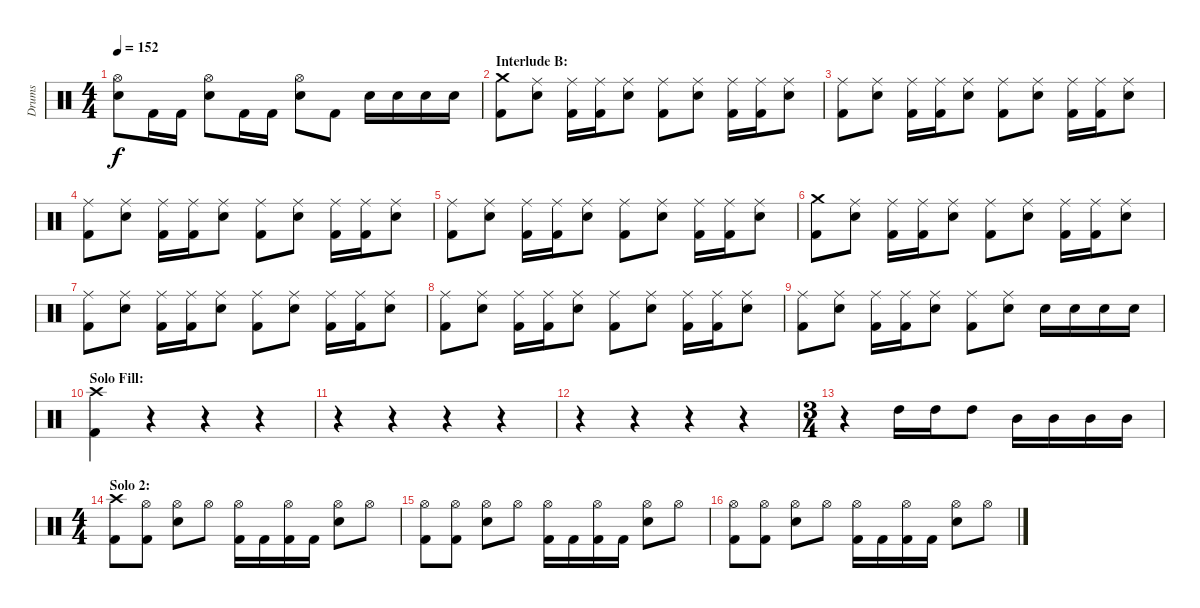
\track ("Drums" "Drums") {instrument percussion}
\staff {score}
\articulation defaults
\ts (4 4)
\tempo 152
\clef neutral
\ks c
("Hi-Hat (open)" "Electric Snare (hit)").8{dy f} "Kick (hit) 2".16 "Kick (hit) 2".16 ("Hi-Hat (open)" "Electric Snare (hit)").8 "Kick (hit) 2".16 "Kick (hit) 2".16 ("Hi-Hat (open)" "Electric Snare (hit)").8 "Kick (hit) 2".8 "Electric Snare (hit)".16 "Electric Snare (hit)".16 "Electric Snare (hit)".16 "Electric Snare (hit)".16 |
\section ("" "Interlude B:")
("Crash medium (hit)" "Kick (hit) 2").8 ("Ride (middle)" "Electric Snare (hit)").8 ("Ride (middle)" "Kick (hit) 2").16 ("Ride (middle)" "Kick (hit) 2").16 ("Ride (middle)" "Electric Snare (hit)").8 ("Ride (middle)" "Kick (hit) 2").8 ("Ride (middle)" "Electric Snare (hit)").8 ("Ride (middle)" "Kick (hit) 2").16 ("Ride (middle)" "Kick (hit) 2").16 ("Ride (middle)" "Electric Snare (hit)").8 |
("Ride (middle)" "Kick (hit) 2").8 ("Ride (middle)" "Electric Snare (hit)").8 ("Ride (middle)" "Kick (hit) 2").16 ("Ride (middle)" "Kick (hit) 2").16 ("Ride (middle)" "Electric Snare (hit)").8 ("Ride (middle)" "Kick (hit) 2").8 ("Ride (middle)" "Electric Snare (hit)").8 ("Ride (middle)" "Kick (hit) 2").16 ("Ride (middle)" "Kick (hit) 2").16 ("Ride (middle)" "Electric Snare (hit)").8 |
("Ride (middle)" "Kick (hit) 2").8 ("Ride (middle)" "Electric Snare (hit)").8 ("Ride (middle)" "Kick (hit) 2").16 ("Ride (middle)" "Kick (hit) 2").16 ("Ride (middle)" "Electric Snare (hit)").8 ("Ride (middle)" "Kick (hit) 2").8 ("Ride (middle)" "Electric Snare (hit)").8 ("Ride (middle)" "Kick (hit) 2").16 ("Ride (middle)" "Kick (hit) 2").16 ("Ride (middle)" "Electric Snare (hit)").8 |
("Ride (middle)" "Kick (hit) 2").8 ("Ride (middle)" "Electric Snare (hit)").8 ("Ride (middle)" "Kick (hit) 2").16 ("Ride (middle)" "Kick (hit) 2").16 ("Ride (middle)" "Electric Snare (hit)").8 ("Ride (middle)" "Kick (hit) 2").8 ("Ride (middle)" "Electric Snare (hit)").8 ("Ride (middle)" "Kick (hit) 2").16 ("Ride (middle)" "Kick (hit) 2").16 ("Ride (middle)" "Electric Snare (hit)").8 |
("Crash medium (hit)" "Kick (hit) 2").8 ("Ride (middle)" "Electric Snare (hit)").8 ("Ride (middle)" "Kick (hit) 2").16 ("Ride (middle)" "Kick (hit) 2").16 ("Ride (middle)" "Electric Snare (hit)").8 ("Ride (middle)" "Kick (hit) 2").8 ("Ride (middle)" "Electric Snare (hit)").8 ("Ride (middle)" "Kick (hit) 2").16 ("Ride (middle)" "Kick (hit) 2").16 ("Ride (middle)" "Electric Snare (hit)").8 |
("Ride (middle)" "Kick (hit) 2").8 ("Ride (middle)" "Electric Snare (hit)").8 ("Ride (middle)" "Kick (hit) 2").16 ("Ride (middle)" "Kick (hit) 2").16 ("Ride (middle)" "Electric Snare (hit)").8 ("Ride (middle)" "Kick (hit) 2").8 ("Ride (middle)" "Electric Snare (hit)").8 ("Ride (middle)" "Kick (hit) 2").16 ("Ride (middle)" "Kick (hit) 2").16 ("Ride (middle)" "Electric Snare (hit)").8 |
("Ride (middle)" "Kick (hit) 2").8 ("Ride (middle)" "Electric Snare (hit)").8 ("Ride (middle)" "Kick (hit) 2").16 ("Ride (middle)" "Kick (hit) 2").16 ("Ride (middle)" "Electric Snare (hit)").8 ("Ride (middle)" "Kick (hit) 2").8 ("Ride (middle)" "Electric Snare (hit)").8 ("Ride (middle)" "Kick (hit) 2").16 ("Ride (middle)" "Kick (hit) 2").16 ("Ride (middle)" "Electric Snare (hit)").8 |
("Ride (middle)" "Kick (hit) 2").8 ("Ride (middle)" "Electric Snare (hit)").8 ("Ride (middle)" "Kick (hit) 2").16 ("Ride (middle)" "Kick (hit) 2").16 ("Ride (middle)" "Electric Snare (hit)").8 ("Ride (middle)" "Kick (hit) 2").8 ("Ride (middle)" "Electric Snare (hit)").8 "Electric Snare (hit)".16 "Electric Snare (hit)".16 "Electric Snare (hit)".16 "Electric Snare (hit)".16 |
\section ("" "Solo Fill:")
("Crash high (hit)" "Kick (hit) 2").4 r.4 r.4 r.4 |
r.4 r.4 r.4 r.4 |
r.4 r.4 r.4 r.4 |
\ts (3 4)
r.4 "High Tom (hit)".16 "High Tom (hit)".16 "High Tom (hit)".8 "Mid Tom (hit)".16 "Mid Tom (hit)".16 "Mid Tom (hit)".16 "Mid Tom (hit)".16 |
\ts (4 4)
\section ("" "Solo 2:")
("Crash high (hit)" "Kick (hit) 2").8 ("Hi-Hat (open)" "Kick (hit) 2").8 ("Hi-Hat (open)" "Electric Snare (hit)").8 "Hi-Hat (open)".8 ("Hi-Hat (open)" "Kick (hit) 2").16 "Kick (hit) 2".16 ("Hi-Hat (open)" "Kick (hit) 2").16 "Kick (hit) 2".16 ("Hi-Hat (open)" "Electric Snare (hit)").8 "Hi-Hat (open)".8 |
("Hi-Hat (open)" "Kick (hit) 2").8 ("Hi-Hat (open)" "Kick (hit) 2").8 ("Hi-Hat (open)" "Electric Snare (hit)").8 "Hi-Hat (open)".8 ("Hi-Hat (open)" "Kick (hit) 2").16 "Kick (hit) 2".16 ("Hi-Hat (open)" "Kick (hit) 2").16 "Kick (hit) 2".16 ("Hi-Hat (open)" "Electric Snare (hit)").8 "Hi-Hat (open)".8 |
("Hi-Hat (open)" "Kick (hit) 2").8 ("Hi-Hat (open)" "Kick (hit) 2").8 ("Hi-Hat (open)" "Electric Snare (hit)").8 "Hi-Hat (open)".8 ("Hi-Hat (open)" "Kick (hit) 2").16 "Kick (hit) 2".16 ("Hi-Hat (open)" "Kick (hit) 2").16 "Kick (hit) 2".16 ("Hi-Hat (open)" "Electric Snare (hit)").8 "Hi-Hat (open)".8
